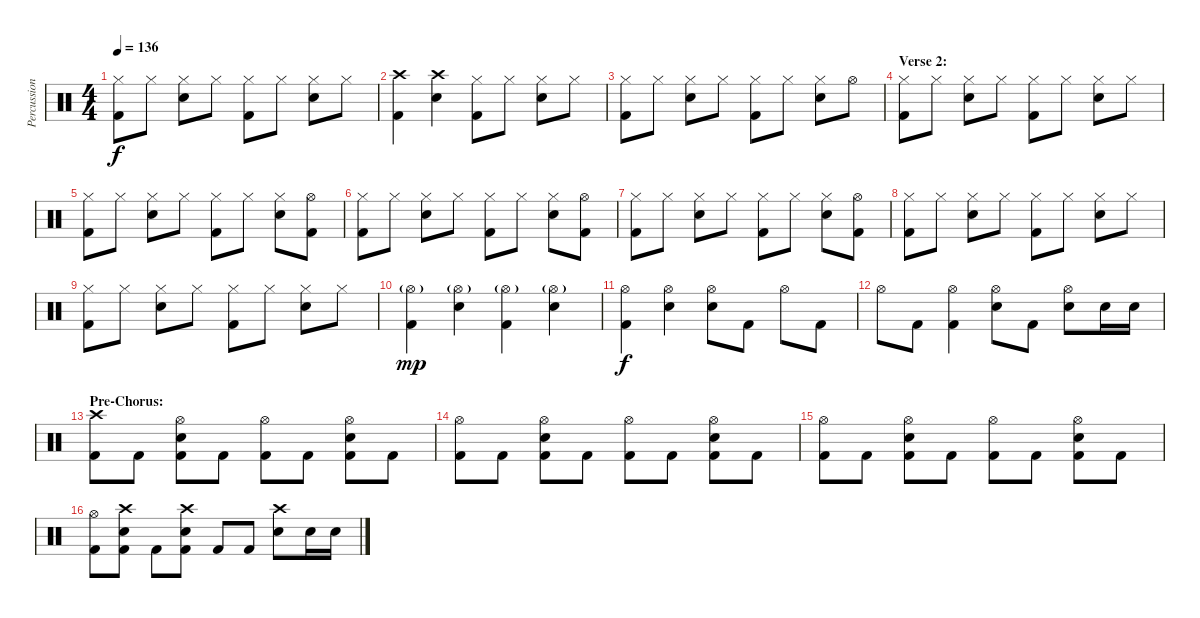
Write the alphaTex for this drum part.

\track ("Percussion" "Percussion") {instrument percussion}
\staff {score}
\articulation defaults
\ts (4 4)
\tempo 136
\clef neutral
\ks c
("Hi-Hat (closed)" "Kick (hit) 2").8{dy f} "Hi-Hat (closed)".8 ("Hi-Hat (closed)" "Electric Snare (hit)").8 "Hi-Hat (closed)".8 ("Hi-Hat (closed)" "Kick (hit) 2").8 "Hi-Hat (closed)".8 ("Hi-Hat (closed)" "Electric Snare (hit)").8 "Hi-Hat (closed)".8 |
("Crash high (hit)" "Kick (hit) 2").4 ("Crash high (hit)" "Electric Snare (hit)").4 ("Hi-Hat (closed)" "Kick (hit) 2").8 "Hi-Hat (closed)".8 ("Hi-Hat (closed)" "Electric Snare (hit)").8 "Hi-Hat (closed)".8 |
("Hi-Hat (closed)" "Kick (hit) 2").8 "Hi-Hat (closed)".8 ("Hi-Hat (closed)" "Electric Snare (hit)").8 "Hi-Hat (closed)".8 ("Hi-Hat (closed)" "Kick (hit) 2").8 "Hi-Hat (closed)".8 ("Hi-Hat (closed)" "Electric Snare (hit)").8 "Hi-Hat (open)".8 |
\section ("" "Verse 2:")
("Hi-Hat (closed)" "Kick (hit) 2").8 "Hi-Hat (closed)".8 ("Hi-Hat (closed)" "Electric Snare (hit)").8 "Hi-Hat (closed)".8 ("Hi-Hat (closed)" "Kick (hit) 2").8 "Hi-Hat (closed)".8 ("Hi-Hat (closed)" "Electric Snare (hit)").8 "Hi-Hat (closed)".8 |
("Hi-Hat (closed)" "Kick (hit) 2").8 "Hi-Hat (closed)".8 ("Hi-Hat (closed)" "Electric Snare (hit)").8 "Hi-Hat (closed)".8 ("Hi-Hat (closed)" "Kick (hit) 2").8 "Hi-Hat (closed)".8 ("Hi-Hat (closed)" "Electric Snare (hit)").8 ("Hi-Hat (open)" "Kick (hit) 2").8 |
("Hi-Hat (closed)" "Kick (hit) 2").8 "Hi-Hat (closed)".8 ("Hi-Hat (closed)" "Electric Snare (hit)").8 "Hi-Hat (closed)".8 ("Hi-Hat (closed)" "Kick (hit) 2").8 "Hi-Hat (closed)".8 ("Hi-Hat (closed)" "Electric Snare (hit)").8 ("Hi-Hat (open)" "Kick (hit) 2").8 |
("Hi-Hat (closed)" "Kick (hit) 2").8 "Hi-Hat (closed)".8 ("Hi-Hat (closed)" "Electric Snare (hit)").8 "Hi-Hat (closed)".8 ("Hi-Hat (closed)" "Kick (hit) 2").8 "Hi-Hat (closed)".8 ("Hi-Hat (closed)" "Electric Snare (hit)").8 ("Hi-Hat (open)" "Kick (hit) 2").8 |
("Hi-Hat (closed)" "Kick (hit) 2").8 "Hi-Hat (closed)".8 ("Hi-Hat (closed)" "Electric Snare (hit)").8 "Hi-Hat (closed)".8 ("Hi-Hat (closed)" "Kick (hit) 2").8 "Hi-Hat (closed)".8 ("Hi-Hat (closed)" "Electric Snare (hit)").8 "Hi-Hat (closed)".8 |
("Hi-Hat (closed)" "Kick (hit) 2").8 "Hi-Hat (closed)".8 ("Hi-Hat (closed)" "Electric Snare (hit)").8 "Hi-Hat (closed)".8 ("Hi-Hat (closed)" "Kick (hit) 2").8 "Hi-Hat (closed)".8 ("Hi-Hat (closed)" "Electric Snare (hit)").8 "Hi-Hat (closed)".8 |
("Hi-Hat (open)"{g} "Kick (hit) 2").4{dy mp} ("Hi-Hat (open)"{g} "Electric Snare (hit)").4 ("Hi-Hat (open)"{g} "Kick (hit) 2").4 ("Hi-Hat (open)"{g} "Electric Snare (hit)").4 |
("Hi-Hat (open)" "Kick (hit) 2").4{dy f} ("Hi-Hat (open)" "Electric Snare (hit)").4 ("Hi-Hat (open)" "Electric Snare (hit)").8 "Kick (hit) 2".8 "Hi-Hat (open)".8 "Kick (hit) 2".8 |
"Hi-Hat (open)".8 "Kick (hit) 2".8 ("Hi-Hat (open)" "Kick (hit) 2").4 ("Hi-Hat (open)" "Electric Snare (hit)").8 "Kick (hit) 2".8 ("Hi-Hat (open)" "Electric Snare (hit)").8 "Electric Snare (hit)".16 "Electric Snare (hit)".16 |
\section ("" "Pre-Chorus:")
("Crash high (hit)" "Kick (hit) 2").8 "Kick (hit) 2".8 ("Hi-Hat (open)" "Electric Snare (hit)" "Kick (hit) 2").8 "Kick (hit) 2".8 ("Hi-Hat (open)" "Kick (hit) 2").8 "Kick (hit) 2".8 ("Hi-Hat (open)" "Electric Snare (hit)" "Kick (hit) 2").8 "Kick (hit) 2".8 |
("Hi-Hat (open)" "Kick (hit) 2").8 "Kick (hit) 2".8 ("Hi-Hat (open)" "Electric Snare (hit)" "Kick (hit) 2").8 "Kick (hit) 2".8 ("Hi-Hat (open)" "Kick (hit) 2").8 "Kick (hit) 2".8 ("Hi-Hat (open)" "Electric Snare (hit)" "Kick (hit) 2").8 "Kick (hit) 2".8 |
("Hi-Hat (open)" "Kick (hit) 2").8 "Kick (hit) 2".8 ("Hi-Hat (open)" "Electric Snare (hit)" "Kick (hit) 2").8 "Kick (hit) 2".8 ("Hi-Hat (open)" "Kick (hit) 2").8 "Kick (hit) 2".8 ("Hi-Hat (open)" "Electric Snare (hit)" "Kick (hit) 2").8 "Kick (hit) 2".8 |
("Hi-Hat (open)" "Kick (hit) 2").8 ("Crash high (hit)" "Electric Snare (hit)" "Kick (hit) 2").8 "Kick (hit) 2".8 ("Crash high (hit)" "Electric Snare (hit)" "Kick (hit) 2").8 "Kick (hit) 2".8 "Kick (hit) 2".8 ("Crash high (hit)" "Electric Snare (hit)").8 "Electric Snare (hit)".16 "Electric Snare (hit)".16
